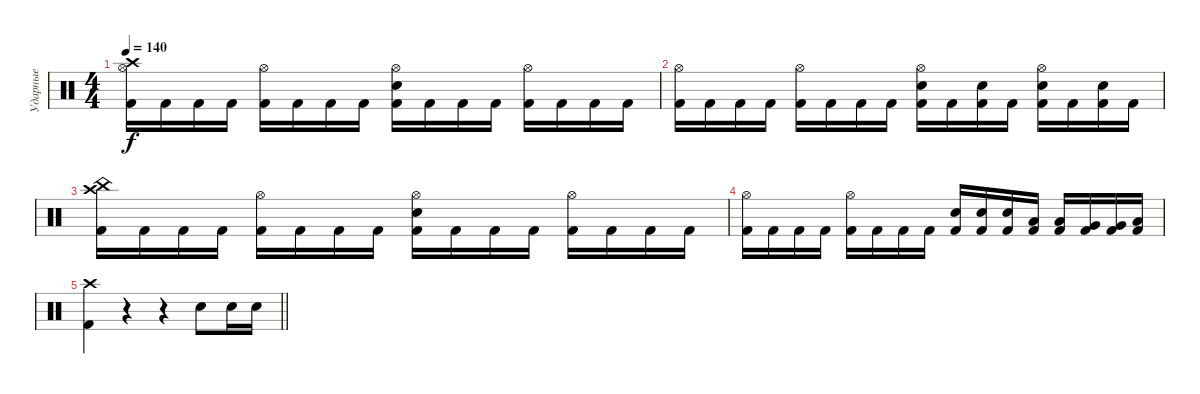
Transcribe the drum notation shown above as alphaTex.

\track ("Ударные" "Ударные") {instrument percussion}
\staff {score}
\articulation defaults
\ts (4 4)
\tempo 140
\clef neutral
\ks c
("Crash high (hit)" "Hi-Hat (open)" "Kick (hit) 2").16{dy f} "Kick (hit) 2".16 "Kick (hit) 2".16 "Kick (hit) 2".16 ("Hi-Hat (open)" "Kick (hit) 2").16 "Kick (hit) 2".16 "Kick (hit) 2".16 "Kick (hit) 2".16 ("Snare (hit) 2" "Hi-Hat (open)" "Kick (hit) 2").16 "Kick (hit) 2".16 "Kick (hit) 2".16 "Kick (hit) 2".16 ("Hi-Hat (open)" "Kick (hit) 2").16 "Kick (hit) 2".16 "Kick (hit) 2".16 "Kick (hit) 2".16 |
("Hi-Hat (open)" "Kick (hit) 2").16 "Kick (hit) 2".16 "Kick (hit) 2".16 "Kick (hit) 2".16 ("Hi-Hat (open)" "Kick (hit) 2").16 "Kick (hit) 2".16 "Kick (hit) 2".16 "Kick (hit) 2".16 ("Snare (hit) 2" "Hi-Hat (open)" "Kick (hit) 2").16 "Kick (hit) 2".16 ("Snare (hit) 2" "Kick (hit) 2").16 "Kick (hit) 2".16 ("Snare (hit) 2" "Hi-Hat (open)" "Kick (hit) 2").16 "Kick (hit) 2".16 ("Snare (hit) 2" "Kick (hit) 2").16 "Kick (hit) 2".16 |
("Crash high (hit)" "China (hit)" "Kick (hit) 2").16 "Kick (hit) 2".16 "Kick (hit) 2".16 "Kick (hit) 2".16 ("Hi-Hat (open)" "Kick (hit) 2").16 "Kick (hit) 2".16 "Kick (hit) 2".16 "Kick (hit) 2".16 ("Snare (hit) 2" "Hi-Hat (open)" "Kick (hit) 2").16 "Kick (hit) 2".16 "Kick (hit) 2".16 "Kick (hit) 2".16 ("Hi-Hat (open)" "Kick (hit) 2").16 "Kick (hit) 2".16 "Kick (hit) 2".16 "Kick (hit) 2".16 |
("Hi-Hat (open)" "Kick (hit) 2").16 "Kick (hit) 2".16 "Kick (hit) 2".16 "Kick (hit) 2".16 ("Hi-Hat (open)" "Kick (hit) 2").16 "Kick (hit) 2".16 "Kick (hit) 2".16 "Kick (hit) 2".16 ("Snare (hit) 2" "Kick (hit) 2").16 ("Snare (hit) 2" "Kick (hit) 2").16 ("Snare (hit) 2" "Kick (hit) 2").16 ("Low Tom (hit)" "Kick (hit) 2").16 ("Low Tom (hit)" "Kick (hit) 2").16 ("Very Low Tom (hit)" "Kick (hit) 2").16 ("Very Low Tom (hit)" "Kick (hit) 2").16 ("Low Floor Tom (hit)" "Kick (hit) 2").16 |
\barLineRight lightlight
("Crash high (hit)" "Kick (hit) 2").4 r.4 r.4 "Snare (hit) 2".8 "Snare (hit) 2".16 "Snare (hit) 2".16
